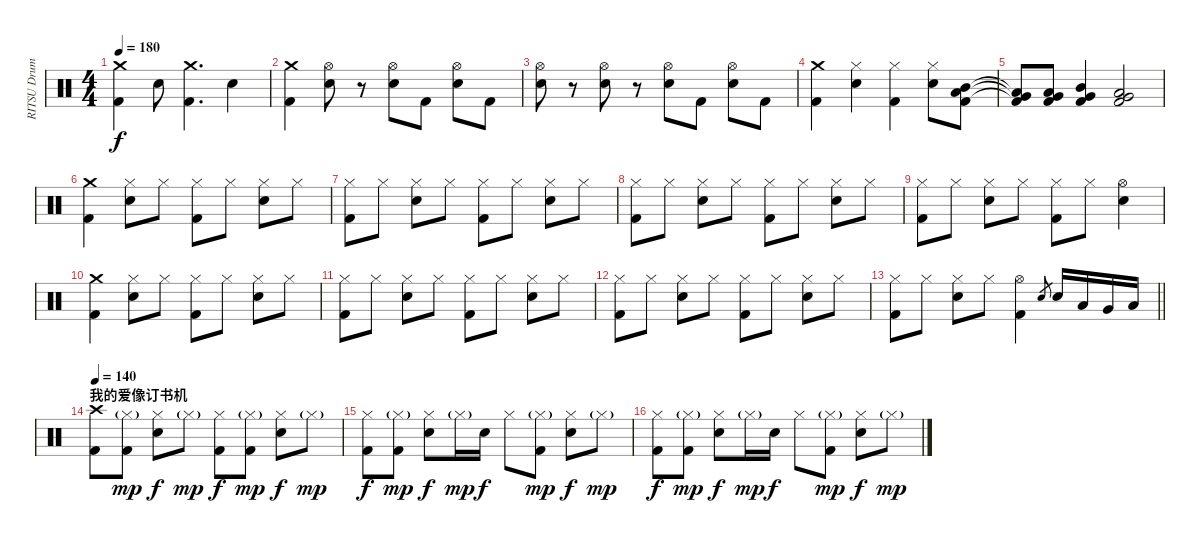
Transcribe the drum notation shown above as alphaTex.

\track ("RITSU Drums" "RITSU Drum") {instrument percussion}
\staff {score}
\articulation defaults
\ts (4 4)
\tempo 180
\clef neutral
\ks c
("Crash medium (hit)" "Kick (hit) 2").4{dy f} "Electric Snare (hit)".8 ("Crash medium (hit)" "Kick (hit) 2").4{d} "Electric Snare (hit)".4 |
("Crash medium (hit)" "Kick (hit) 2").4 ("Hi-Hat (open)" "Electric Snare (hit)").8 r.8 ("Hi-Hat (open)" "Electric Snare (hit)").8 "Kick (hit) 2".8 ("Hi-Hat (open)" "Electric Snare (hit)").8 "Kick (hit) 2".8 |
("Hi-Hat (open)" "Electric Snare (hit)").8 r.8 ("Hi-Hat (open)" "Electric Snare (hit)").8 r.8 ("Hi-Hat (open)" "Electric Snare (hit)").8 "Kick (hit) 2".8 ("Hi-Hat (open)" "Electric Snare (hit)").8 "Kick (hit) 2".8 |
("Crash medium (hit)" "Kick (hit) 2").4 ("Hi-Hat (closed)" "Electric Snare (hit)").4 ("Hi-Hat (closed)" "Kick (hit) 2").4 ("Hi-Hat (closed)" "Electric Snare (hit)").8 ("Mid Tom (hit)" "Low Tom (hit)" "Kick (hit) 2").8 |
("Low Tom (hit)"{t} "Very Low Tom (hit)"{t} "Kick (hit) 2"{t}).8 ("Low Tom (hit)" "Very Low Tom (hit)" "Kick (hit) 2").8 ("Mid Tom (hit)" "Very Low Tom (hit)" "Kick (hit) 2").4 ("Very Low Tom (hit)" "Low Floor Tom (hit)" "Kick (hit) 2").2 |
("Crash medium (hit)" "Kick (hit) 2").4 ("Hi-Hat (closed)" "Electric Snare (hit)").8 "Hi-Hat (closed)".8 ("Hi-Hat (closed)" "Kick (hit) 2").8 "Hi-Hat (closed)".8 ("Hi-Hat (closed)" "Electric Snare (hit)").8 "Hi-Hat (closed)".8 |
("Hi-Hat (closed)" "Kick (hit) 2").8 "Hi-Hat (closed)".8 ("Hi-Hat (closed)" "Electric Snare (hit)").8 "Hi-Hat (closed)".8 ("Hi-Hat (closed)" "Kick (hit) 2").8 "Hi-Hat (closed)".8 ("Hi-Hat (closed)" "Electric Snare (hit)").8 "Hi-Hat (closed)".8 |
("Hi-Hat (closed)" "Kick (hit) 2").8 "Hi-Hat (closed)".8 ("Hi-Hat (closed)" "Electric Snare (hit)").8 "Hi-Hat (closed)".8 ("Hi-Hat (closed)" "Kick (hit) 2").8 "Hi-Hat (closed)".8 ("Hi-Hat (closed)" "Electric Snare (hit)").8 "Hi-Hat (closed)".8 |
("Hi-Hat (closed)" "Kick (hit) 2").8 "Hi-Hat (closed)".8 ("Hi-Hat (closed)" "Electric Snare (hit)").8 "Hi-Hat (closed)".8 ("Hi-Hat (closed)" "Kick (hit) 2").8 "Hi-Hat (closed)".8 ("Hi-Hat (open)" "Electric Snare (hit)").4 |
("Crash medium (hit)" "Kick (hit) 2").4 ("Hi-Hat (closed)" "Electric Snare (hit)").8 "Hi-Hat (closed)".8 ("Hi-Hat (closed)" "Kick (hit) 2").8 "Hi-Hat (closed)".8 ("Hi-Hat (closed)" "Electric Snare (hit)").8 "Hi-Hat (closed)".8 |
("Hi-Hat (closed)" "Kick (hit) 2").8 "Hi-Hat (closed)".8 ("Hi-Hat (closed)" "Electric Snare (hit)").8 "Hi-Hat (closed)".8 ("Hi-Hat (closed)" "Kick (hit) 2").8 "Hi-Hat (closed)".8 ("Hi-Hat (closed)" "Electric Snare (hit)").8 "Hi-Hat (closed)".8 |
("Hi-Hat (closed)" "Kick (hit) 2").8 "Hi-Hat (closed)".8 ("Hi-Hat (closed)" "Electric Snare (hit)").8 "Hi-Hat (closed)".8 ("Hi-Hat (closed)" "Kick (hit) 2").8 "Hi-Hat (closed)".8 ("Hi-Hat (closed)" "Electric Snare (hit)").8 "Hi-Hat (closed)".8 |
\barLineRight lightlight
("Hi-Hat (closed)" "Kick (hit) 2").8 "Hi-Hat (closed)".8 ("Hi-Hat (closed)" "Electric Snare (hit)").8 "Hi-Hat (closed)".8 ("Hi-Hat (open)" "Kick (hit) 2").4 "Electric Snare (hit)".8{gr} "Electric Snare (hit)".16 "Low Tom (hit)".16 "Very Low Tom (hit)".16 "Low Floor Tom (hit)".16 |
\section ("" "我的爱像订书机")
\tempo 140
("Crash high (hit)" "Kick (hit) 2").8 ("Hi-Hat (closed)"{g} "Kick (hit) 2").8{dy mp} ("Hi-Hat (closed)" "Electric Snare (hit)").8{dy f} "Hi-Hat (closed)"{g}.8{dy mp} ("Hi-Hat (closed)" "Kick (hit) 2").8{dy f} ("Hi-Hat (closed)"{g} "Kick (hit) 2").8{dy mp} ("Hi-Hat (closed)" "Electric Snare (hit)").8{dy f} "Hi-Hat (closed)"{g}.8{dy mp} |
("Hi-Hat (closed)" "Kick (hit) 2").8{dy f} ("Hi-Hat (closed)"{g} "Kick (hit) 2").8{dy mp} ("Hi-Hat (closed)" "Electric Snare (hit)").8{dy f} "Hi-Hat (closed)"{g}.16{dy mp} "Electric Snare (hit)".16{dy f} "Hi-Hat (closed)".8 ("Hi-Hat (closed)"{g} "Kick (hit) 2").8{dy mp} ("Hi-Hat (closed)" "Electric Snare (hit)").8{dy f} "Hi-Hat (closed)"{g}.8{dy mp} |
("Hi-Hat (closed)" "Kick (hit) 2").8{dy f} ("Hi-Hat (closed)"{g} "Kick (hit) 2").8{dy mp} ("Hi-Hat (closed)" "Electric Snare (hit)").8{dy f} "Hi-Hat (closed)"{g}.16{dy mp} "Electric Snare (hit)".16{dy f} "Hi-Hat (closed)".8 ("Hi-Hat (closed)"{g} "Kick (hit) 2").8{dy mp} ("Hi-Hat (closed)" "Electric Snare (hit)").8{dy f} "Hi-Hat (closed)"{g}.8{dy mp}
